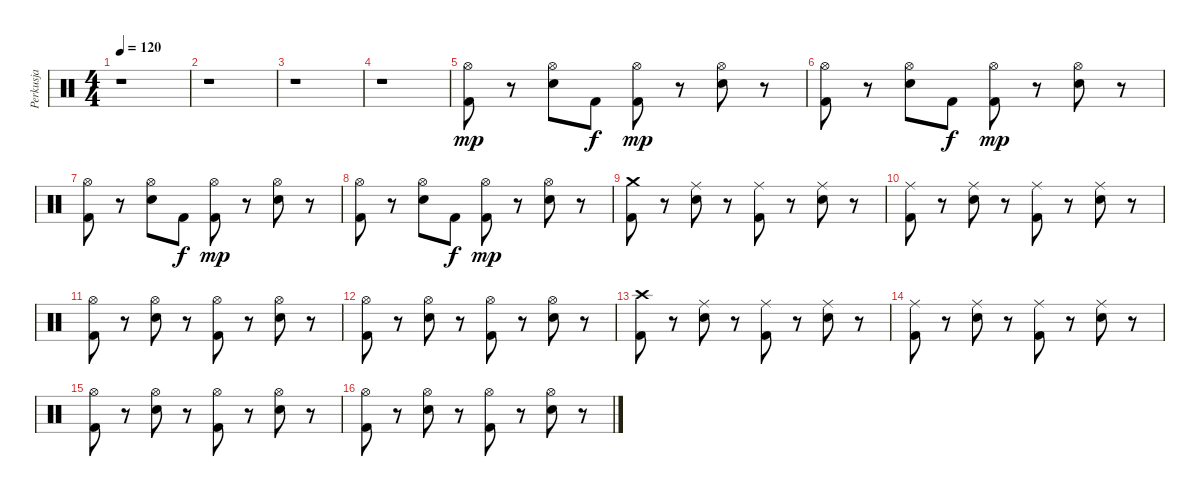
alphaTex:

\track ("Perkusja" "Perkusja") {instrument percussion}
\staff {score}
\articulation defaults
\ts (4 4)
\tempo 120
\clef neutral
\ks c
r.1{dy mp} |
r.1 |
r.1 |
r.1 |
("Kick (hit) 2" "Hi-Hat (open)").8 r.8 ("Electric Snare (hit)" "Hi-Hat (open)").8 "Kick (hit) 2".8{dy f} ("Kick (hit) 2" "Hi-Hat (open)").8{dy mp} r.8 ("Electric Snare (hit)" "Hi-Hat (open)").8 r.8 |
("Kick (hit) 2" "Hi-Hat (open)").8 r.8 ("Electric Snare (hit)" "Hi-Hat (open)").8 "Kick (hit) 2".8{dy f} ("Kick (hit) 2" "Hi-Hat (open)").8{dy mp} r.8 ("Electric Snare (hit)" "Hi-Hat (open)").8 r.8 |
("Kick (hit) 2" "Hi-Hat (open)").8 r.8 ("Electric Snare (hit)" "Hi-Hat (open)").8 "Kick (hit) 2".8{dy f} ("Kick (hit) 2" "Hi-Hat (open)").8{dy mp} r.8 ("Electric Snare (hit)" "Hi-Hat (open)").8 r.8 |
("Kick (hit) 2" "Hi-Hat (open)").8 r.8 ("Electric Snare (hit)" "Hi-Hat (open)").8 "Kick (hit) 2".8{dy f} ("Kick (hit) 2" "Hi-Hat (open)").8{dy mp} r.8 ("Electric Snare (hit)" "Hi-Hat (open)").8 r.8 |
("Kick (hit) 2" "Crash medium (hit)").8 r.8 ("Electric Snare (hit)" "Ride (middle)").8 r.8 ("Kick (hit) 2" "Ride (middle)").8 r.8 ("Electric Snare (hit)" "Ride (middle)").8 r.8 |
("Kick (hit) 2" "Ride (middle)").8 r.8 ("Electric Snare (hit)" "Ride (middle)").8 r.8 ("Kick (hit) 2" "Ride (middle)").8 r.8 ("Electric Snare (hit)" "Ride (middle)").8 r.8 |
("Kick (hit) 2" "Hi-Hat (open)").8 r.8 ("Electric Snare (hit)" "Hi-Hat (open)").8 r.8 ("Kick (hit) 2" "Hi-Hat (open)").8 r.8 ("Electric Snare (hit)" "Hi-Hat (open)").8 r.8 |
("Kick (hit) 2" "Hi-Hat (open)").8 r.8 ("Electric Snare (hit)" "Hi-Hat (open)").8 r.8 ("Kick (hit) 2" "Hi-Hat (open)").8 r.8 ("Electric Snare (hit)" "Hi-Hat (open)").8 r.8 |
("Kick (hit) 2" "Crash high (hit)").8 r.8 ("Electric Snare (hit)" "Ride (middle)").8 r.8 ("Kick (hit) 2" "Ride (middle)").8 r.8 ("Electric Snare (hit)" "Ride (middle)").8 r.8 |
("Kick (hit) 2" "Ride (middle)").8 r.8 ("Electric Snare (hit)" "Ride (middle)").8 r.8 ("Kick (hit) 2" "Ride (middle)").8 r.8 ("Electric Snare (hit)" "Ride (middle)").8 r.8 |
("Kick (hit) 2" "Hi-Hat (open)").8 r.8 ("Electric Snare (hit)" "Hi-Hat (open)").8 r.8 ("Kick (hit) 2" "Hi-Hat (open)").8 r.8 ("Electric Snare (hit)" "Hi-Hat (open)").8 r.8 |
("Kick (hit) 2" "Hi-Hat (open)").8 r.8 ("Electric Snare (hit)" "Hi-Hat (open)").8 r.8 ("Kick (hit) 2" "Hi-Hat (open)").8 r.8 ("Electric Snare (hit)" "Hi-Hat (open)").8 r.8
